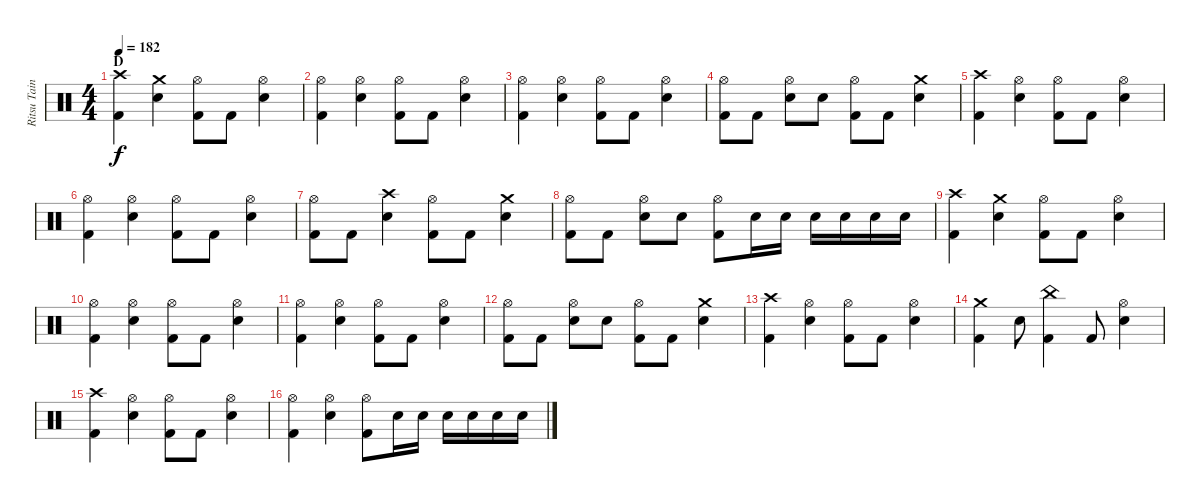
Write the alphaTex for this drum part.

\track ("Ritsu Tainaka" "Ritsu Tain") {instrument percussion}
\staff {score}
\articulation defaults
\ts (4 4)
\section ("" "D")
\tempo 182
\clef neutral
\ks c
("Crash high (hit)" "Kick (hit) 2").4{dy f} ("Crash medium (hit)" "Electric Snare (hit)").4 ("Hi-Hat (open)" "Kick (hit) 2").8 "Kick (hit) 2".8 ("Hi-Hat (open)" "Electric Snare (hit)").4 |
("Hi-Hat (open)" "Kick (hit) 2").4 ("Hi-Hat (open)" "Electric Snare (hit)").4 ("Hi-Hat (open)" "Kick (hit) 2").8 "Kick (hit) 2".8 ("Hi-Hat (open)" "Electric Snare (hit)").4 |
("Hi-Hat (open)" "Kick (hit) 2").4 ("Hi-Hat (open)" "Electric Snare (hit)").4 ("Hi-Hat (open)" "Kick (hit) 2").8 "Kick (hit) 2".8 ("Hi-Hat (open)" "Electric Snare (hit)").4 |
("Hi-Hat (open)" "Kick (hit) 2").8 "Kick (hit) 2".8 ("Hi-Hat (open)" "Electric Snare (hit)").8 "Electric Snare (hit)".8 ("Hi-Hat (open)" "Kick (hit) 2").8 "Kick (hit) 2".8 ("Crash medium (hit)" "Electric Snare (hit)").4 |
("Crash high (hit)" "Kick (hit) 2").4 ("Hi-Hat (open)" "Electric Snare (hit)").4 ("Hi-Hat (open)" "Kick (hit) 2").8 "Kick (hit) 2".8 ("Hi-Hat (open)" "Electric Snare (hit)").4 |
("Hi-Hat (open)" "Kick (hit) 2").4 ("Hi-Hat (open)" "Electric Snare (hit)").4 ("Hi-Hat (open)" "Kick (hit) 2").8 "Kick (hit) 2".8 ("Hi-Hat (open)" "Electric Snare (hit)").4 |
("Hi-Hat (open)" "Kick (hit) 2").8 "Kick (hit) 2".8 ("Crash high (hit)" "Electric Snare (hit)").4 ("Hi-Hat (open)" "Kick (hit) 2").8 "Kick (hit) 2".8 ("Crash medium (hit)" "Electric Snare (hit)").4 |
("Hi-Hat (open)" "Kick (hit) 2").8 "Kick (hit) 2".8 ("Hi-Hat (open)" "Electric Snare (hit)").8 "Electric Snare (hit)".8 ("Hi-Hat (open)" "Kick (hit) 2").8 "Electric Snare (hit)".16 "Electric Snare (hit)".16 "Electric Snare (hit)".16 "Electric Snare (hit)".16 "Electric Snare (hit)".16 "Electric Snare (hit)".16 |
("Crash high (hit)" "Kick (hit) 2").4 ("Crash medium (hit)" "Electric Snare (hit)").4 ("Hi-Hat (open)" "Kick (hit) 2").8 "Kick (hit) 2".8 ("Hi-Hat (open)" "Electric Snare (hit)").4 |
("Hi-Hat (open)" "Kick (hit) 2").4 ("Hi-Hat (open)" "Electric Snare (hit)").4 ("Hi-Hat (open)" "Kick (hit) 2").8 "Kick (hit) 2".8 ("Hi-Hat (open)" "Electric Snare (hit)").4 |
("Hi-Hat (open)" "Kick (hit) 2").4 ("Hi-Hat (open)" "Electric Snare (hit)").4 ("Hi-Hat (open)" "Kick (hit) 2").8 "Kick (hit) 2".8 ("Hi-Hat (open)" "Electric Snare (hit)").4 |
("Hi-Hat (open)" "Kick (hit) 2").8 "Kick (hit) 2".8 ("Hi-Hat (open)" "Electric Snare (hit)").8 "Electric Snare (hit)".8 ("Hi-Hat (open)" "Kick (hit) 2").8 "Kick (hit) 2".8 ("Crash medium (hit)" "Electric Snare (hit)").4 |
("Crash high (hit)" "Kick (hit) 2").4 ("Hi-Hat (open)" "Electric Snare (hit)").4 ("Hi-Hat (open)" "Kick (hit) 2").8 "Kick (hit) 2".8 ("Hi-Hat (open)" "Electric Snare (hit)").4 |
("Crash medium (hit)" "Kick (hit) 2").4 "Electric Snare (hit)".8 ("China (hit)" "Kick (hit) 2").4 "Kick (hit) 2".8 ("Hi-Hat (open)" "Electric Snare (hit)").4 |
("Crash high (hit)" "Kick (hit) 2").4 ("Hi-Hat (open)" "Electric Snare (hit)").4 ("Hi-Hat (open)" "Kick (hit) 2").8 "Kick (hit) 2".8 ("Hi-Hat (open)" "Electric Snare (hit)").4 |
("Hi-Hat (open)" "Kick (hit) 2").4 ("Hi-Hat (open)" "Electric Snare (hit)").4 ("Hi-Hat (open)" "Kick (hit) 2").8 "Electric Snare (hit)".16 "Electric Snare (hit)".16 "Electric Snare (hit)".16 "Electric Snare (hit)".16 "Electric Snare (hit)".16 "Electric Snare (hit)".16
